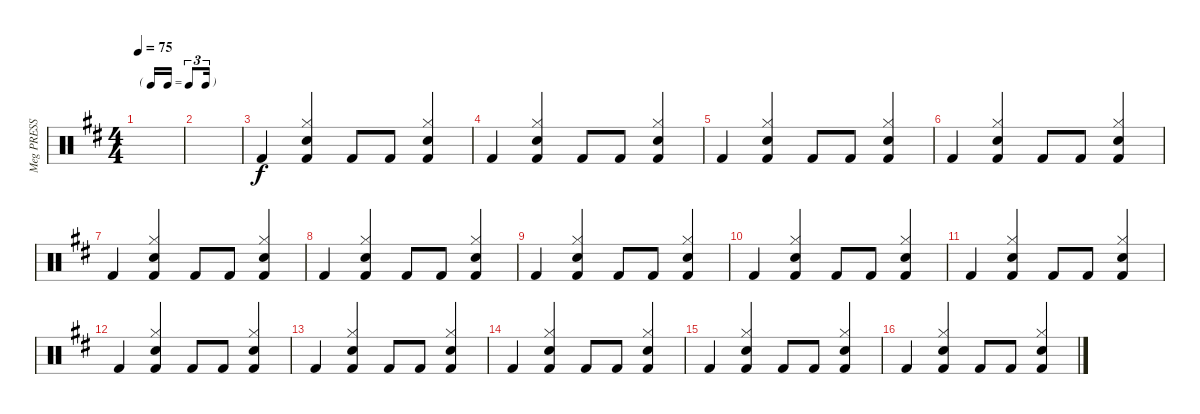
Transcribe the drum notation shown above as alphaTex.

\track ("Meg PRESS F5!!" "Meg PRESS ") {instrument percussion}
\staff {score}
\articulation defaults
\ts (4 4)
\tf triplet16th
\tempo 75
\clef neutral
\ks d
|
|
"Kick (hit) 2".4 ("Kick (hit) 2" "Hi-Hat (closed)" "Snare (hit) 2").4 "Kick (hit) 2".8 "Kick (hit) 2".8 ("Kick (hit) 2" "Hi-Hat (closed)" "Snare (hit) 2").4 |
"Kick (hit) 2".4 ("Kick (hit) 2" "Hi-Hat (closed)" "Snare (hit) 2").4 "Kick (hit) 2".8 "Kick (hit) 2".8 ("Kick (hit) 2" "Hi-Hat (closed)" "Snare (hit) 2").4 |
"Kick (hit) 2".4 ("Kick (hit) 2" "Hi-Hat (closed)" "Snare (hit) 2").4 "Kick (hit) 2".8 "Kick (hit) 2".8 ("Kick (hit) 2" "Hi-Hat (closed)" "Snare (hit) 2").4 |
"Kick (hit) 2".4 ("Kick (hit) 2" "Hi-Hat (closed)" "Snare (hit) 2").4 "Kick (hit) 2".8 "Kick (hit) 2".8 ("Kick (hit) 2" "Hi-Hat (closed)" "Snare (hit) 2").4 |
"Kick (hit) 2".4 ("Kick (hit) 2" "Hi-Hat (closed)" "Snare (hit) 2").4 "Kick (hit) 2".8 "Kick (hit) 2".8 ("Kick (hit) 2" "Hi-Hat (closed)" "Snare (hit) 2").4 |
"Kick (hit) 2".4 ("Kick (hit) 2" "Hi-Hat (closed)" "Snare (hit) 2").4 "Kick (hit) 2".8 "Kick (hit) 2".8 ("Kick (hit) 2" "Hi-Hat (closed)" "Snare (hit) 2").4 |
"Kick (hit) 2".4 ("Kick (hit) 2" "Hi-Hat (closed)" "Snare (hit) 2").4 "Kick (hit) 2".8 "Kick (hit) 2".8 ("Kick (hit) 2" "Hi-Hat (closed)" "Snare (hit) 2").4 |
"Kick (hit) 2".4 ("Kick (hit) 2" "Hi-Hat (closed)" "Snare (hit) 2").4 "Kick (hit) 2".8 "Kick (hit) 2".8 ("Kick (hit) 2" "Hi-Hat (closed)" "Snare (hit) 2").4 |
"Kick (hit) 2".4 ("Kick (hit) 2" "Hi-Hat (closed)" "Snare (hit) 2").4 "Kick (hit) 2".8 "Kick (hit) 2".8 ("Kick (hit) 2" "Hi-Hat (closed)" "Snare (hit) 2").4 |
"Kick (hit) 2".4 ("Kick (hit) 2" "Hi-Hat (closed)" "Snare (hit) 2").4 "Kick (hit) 2".8 "Kick (hit) 2".8 ("Kick (hit) 2" "Hi-Hat (closed)" "Snare (hit) 2").4 |
"Kick (hit) 2".4 ("Kick (hit) 2" "Hi-Hat (closed)" "Snare (hit) 2").4 "Kick (hit) 2".8 "Kick (hit) 2".8 ("Kick (hit) 2" "Hi-Hat (closed)" "Snare (hit) 2").4 |
"Kick (hit) 2".4 ("Kick (hit) 2" "Hi-Hat (closed)" "Snare (hit) 2").4 "Kick (hit) 2".8 "Kick (hit) 2".8 ("Kick (hit) 2" "Hi-Hat (closed)" "Snare (hit) 2").4 |
"Kick (hit) 2".4 ("Kick (hit) 2" "Hi-Hat (closed)" "Snare (hit) 2").4 "Kick (hit) 2".8 "Kick (hit) 2".8 ("Kick (hit) 2" "Hi-Hat (closed)" "Snare (hit) 2").4 |
"Kick (hit) 2".4 ("Kick (hit) 2" "Hi-Hat (closed)" "Snare (hit) 2").4 "Kick (hit) 2".8 "Kick (hit) 2".8 ("Kick (hit) 2" "Hi-Hat (closed)" "Snare (hit) 2").4
